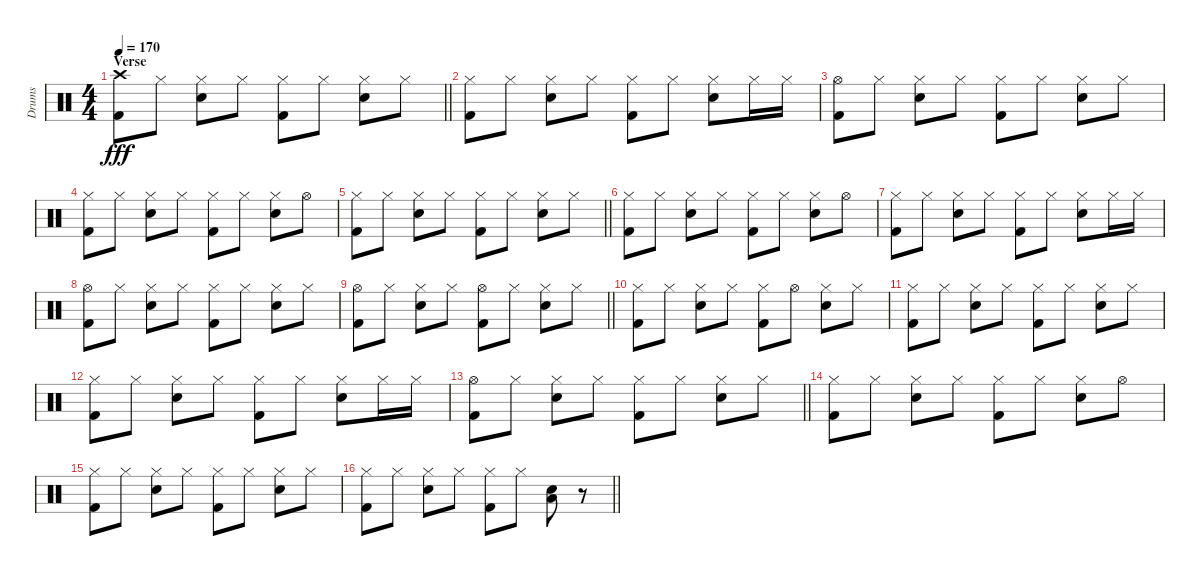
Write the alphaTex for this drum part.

\track ("Drums" "Drums") {instrument percussion}
\staff {score}
\articulation defaults
\ts (4 4)
\section ("" "Verse")
\tempo 170
\clef neutral
\barLineRight lightlight
\ks c
("Crash high (hit)" "Kick (hit) 2").8{dy fff} "Hi-Hat (closed)".8 ("Hi-Hat (closed)" "Electric Snare (hit)").8 "Hi-Hat (closed)".8 ("Hi-Hat (closed)" "Kick (hit) 2").8 "Hi-Hat (closed)".8 ("Hi-Hat (closed)" "Electric Snare (hit)").8 "Hi-Hat (closed)".8 |
("Hi-Hat (closed)" "Kick (hit) 2").8 "Hi-Hat (closed)".8 ("Hi-Hat (closed)" "Electric Snare (hit)").8 "Hi-Hat (closed)".8 ("Hi-Hat (closed)" "Kick (hit) 2").8 "Hi-Hat (closed)".8 ("Hi-Hat (closed)" "Electric Snare (hit)").8 "Hi-Hat (closed)".16 "Hi-Hat (closed)".16 |
("Hi-Hat (open)" "Kick (hit) 2").8 "Hi-Hat (closed)".8 ("Hi-Hat (closed)" "Electric Snare (hit)").8 "Hi-Hat (closed)".8 ("Hi-Hat (closed)" "Kick (hit) 2").8 "Hi-Hat (closed)".8 ("Hi-Hat (closed)" "Electric Snare (hit)").8 "Hi-Hat (closed)".8 |
("Hi-Hat (closed)" "Kick (hit) 2").8 "Hi-Hat (closed)".8 ("Hi-Hat (closed)" "Electric Snare (hit)").8 "Hi-Hat (closed)".8 ("Hi-Hat (closed)" "Kick (hit) 2").8 "Hi-Hat (closed)".8 ("Hi-Hat (closed)" "Electric Snare (hit)").8 "Hi-Hat (open)".8 |
\barLineRight lightlight
("Hi-Hat (closed)" "Kick (hit) 2").8 "Hi-Hat (closed)".8 ("Hi-Hat (closed)" "Electric Snare (hit)").8 "Hi-Hat (closed)".8 ("Hi-Hat (closed)" "Kick (hit) 2").8 "Hi-Hat (closed)".8 ("Hi-Hat (closed)" "Electric Snare (hit)").8 "Hi-Hat (closed)".8 |
("Hi-Hat (closed)" "Kick (hit) 2").8 "Hi-Hat (closed)".8 ("Hi-Hat (closed)" "Electric Snare (hit)").8 "Hi-Hat (closed)".8 ("Hi-Hat (closed)" "Kick (hit) 2").8 "Hi-Hat (closed)".8 ("Hi-Hat (closed)" "Electric Snare (hit)").8 "Hi-Hat (open)".8 |
("Hi-Hat (closed)" "Kick (hit) 2").8 "Hi-Hat (closed)".8 ("Hi-Hat (closed)" "Electric Snare (hit)").8 "Hi-Hat (closed)".8 ("Hi-Hat (closed)" "Kick (hit) 2").8 "Hi-Hat (closed)".8 ("Hi-Hat (closed)" "Electric Snare (hit)").8 "Hi-Hat (closed)".16 "Hi-Hat (closed)".16 |
("Hi-Hat (open)" "Kick (hit) 2").8 "Hi-Hat (closed)".8 ("Hi-Hat (closed)" "Electric Snare (hit)").8 "Hi-Hat (closed)".8 ("Hi-Hat (closed)" "Kick (hit) 2").8 "Hi-Hat (closed)".8 ("Hi-Hat (closed)" "Electric Snare (hit)").8 "Hi-Hat (closed)".8 |
\barLineRight lightlight
("Hi-Hat (open)" "Kick (hit) 2").8 "Hi-Hat (closed)".8 ("Hi-Hat (closed)" "Electric Snare (hit)").8 "Hi-Hat (closed)".8 ("Hi-Hat (open)" "Kick (hit) 2").8 "Hi-Hat (closed)".8 ("Hi-Hat (closed)" "Electric Snare (hit)").8 "Hi-Hat (closed)".8 |
("Hi-Hat (closed)" "Kick (hit) 2").8 "Hi-Hat (closed)".8 ("Hi-Hat (closed)" "Electric Snare (hit)").8 "Hi-Hat (closed)".8 ("Hi-Hat (closed)" "Kick (hit) 2").8 "Hi-Hat (open)".8 ("Hi-Hat (closed)" "Electric Snare (hit)").8 "Hi-Hat (closed)".8 |
("Hi-Hat (closed)" "Kick (hit) 2").8 "Hi-Hat (closed)".8 ("Hi-Hat (closed)" "Electric Snare (hit)").8 "Hi-Hat (closed)".8 ("Hi-Hat (closed)" "Kick (hit) 2").8 "Hi-Hat (closed)".8 ("Hi-Hat (closed)" "Electric Snare (hit)").8 "Hi-Hat (closed)".8 |
("Hi-Hat (closed)" "Kick (hit) 2").8 "Hi-Hat (closed)".8 ("Hi-Hat (closed)" "Electric Snare (hit)").8 "Hi-Hat (closed)".8 ("Hi-Hat (closed)" "Kick (hit) 2").8 "Hi-Hat (closed)".8 ("Hi-Hat (closed)" "Electric Snare (hit)").8 "Hi-Hat (closed)".16 "Hi-Hat (closed)".16 |
\barLineRight lightlight
("Hi-Hat (open)" "Kick (hit) 2").8 "Hi-Hat (closed)".8 ("Hi-Hat (closed)" "Electric Snare (hit)").8 "Hi-Hat (closed)".8 ("Hi-Hat (closed)" "Kick (hit) 2").8 "Hi-Hat (closed)".8 ("Hi-Hat (closed)" "Electric Snare (hit)").8 "Hi-Hat (closed)".8 |
("Hi-Hat (closed)" "Kick (hit) 2").8 "Hi-Hat (closed)".8 ("Hi-Hat (closed)" "Electric Snare (hit)").8 "Hi-Hat (closed)".8 ("Hi-Hat (closed)" "Kick (hit) 2").8 "Hi-Hat (closed)".8 ("Hi-Hat (closed)" "Electric Snare (hit)").8 "Hi-Hat (open)".8 |
("Hi-Hat (closed)" "Kick (hit) 2").8 "Hi-Hat (closed)".8 ("Hi-Hat (closed)" "Electric Snare (hit)").8 "Hi-Hat (closed)".8 ("Hi-Hat (closed)" "Kick (hit) 2").8 "Hi-Hat (closed)".8 ("Hi-Hat (closed)" "Electric Snare (hit)").8 "Hi-Hat (closed)".8 |
\barLineRight lightlight
("Hi-Hat (closed)" "Kick (hit) 2").8 "Hi-Hat (closed)".8 ("Hi-Hat (closed)" "Electric Snare (hit)").8 "Hi-Hat (closed)".8 ("Hi-Hat (closed)" "Kick (hit) 2").8 "Hi-Hat (closed)".8 ("Electric Snare (hit)" "Low Floor Tom (hit)").8 r.8
